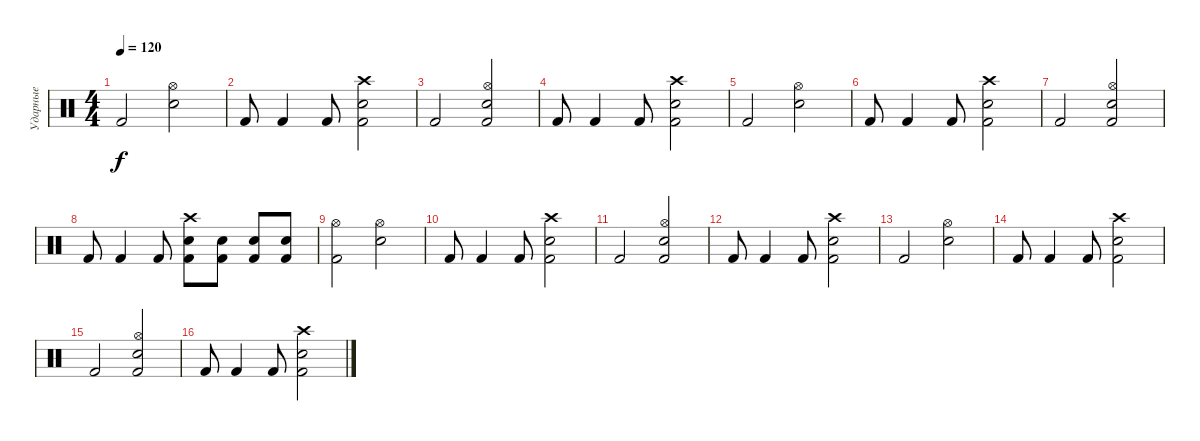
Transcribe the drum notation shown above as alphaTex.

\track ("Ударные" "Ударные") {instrument percussion}
\staff {score}
\articulation defaults
\ts (4 4)
\tempo 120
\clef neutral
\ks c "Kick (hit) 2".2{dy f}
("Hi-Hat (open)" "Snare (hit) 2").2 |
"Kick (hit) 2".8 "Kick (hit) 2".4 "Kick (hit) 2".8 ("Crash high (hit)" "Snare (hit) 2" "Kick (hit) 2").2 |
"Kick (hit) 2".2 ("Hi-Hat (open)" "Snare (hit) 2" "Kick (hit) 2").2 |
"Kick (hit) 2".8 "Kick (hit) 2".4 "Kick (hit) 2".8 ("Crash high (hit)" "Snare (hit) 2" "Kick (hit) 2").2 |
"Kick (hit) 2".2 ("Hi-Hat (open)" "Snare (hit) 2").2 |
"Kick (hit) 2".8 "Kick (hit) 2".4 "Kick (hit) 2".8 ("Crash high (hit)" "Snare (hit) 2" "Kick (hit) 2").2 |
"Kick (hit) 2".2 ("Hi-Hat (open)" "Snare (hit) 2" "Kick (hit) 2").2 |
"Kick (hit) 2".8 "Kick (hit) 2".4 "Kick (hit) 2".8 ("Crash high (hit)" "Snare (hit) 2" "Kick (hit) 2").8 ("Snare (hit) 2" "Kick (hit) 2").8 ("Snare (hit) 2" "Kick (hit) 2").8 ("Snare (hit) 2" "Kick (hit) 2").8 |
("Hi-Hat (open)" "Kick (hit) 2").2 ("Hi-Hat (open)" "Snare (hit) 2").2 |
"Kick (hit) 2".8 "Kick (hit) 2".4 "Kick (hit) 2".8 ("Crash high (hit)" "Snare (hit) 2" "Kick (hit) 2").2 |
"Kick (hit) 2".2 ("Hi-Hat (open)" "Snare (hit) 2" "Kick (hit) 2").2 |
"Kick (hit) 2".8 "Kick (hit) 2".4 "Kick (hit) 2".8 ("Crash high (hit)" "Snare (hit) 2" "Kick (hit) 2").2 |
"Kick (hit) 2".2 ("Hi-Hat (open)" "Snare (hit) 2").2 |
"Kick (hit) 2".8 "Kick (hit) 2".4 "Kick (hit) 2".8 ("Crash high (hit)" "Snare (hit) 2" "Kick (hit) 2").2 |
"Kick (hit) 2".2 ("Hi-Hat (open)" "Snare (hit) 2" "Kick (hit) 2").2 |
"Kick (hit) 2".8 "Kick (hit) 2".4 "Kick (hit) 2".8 ("Crash high (hit)" "Snare (hit) 2" "Kick (hit) 2").2
